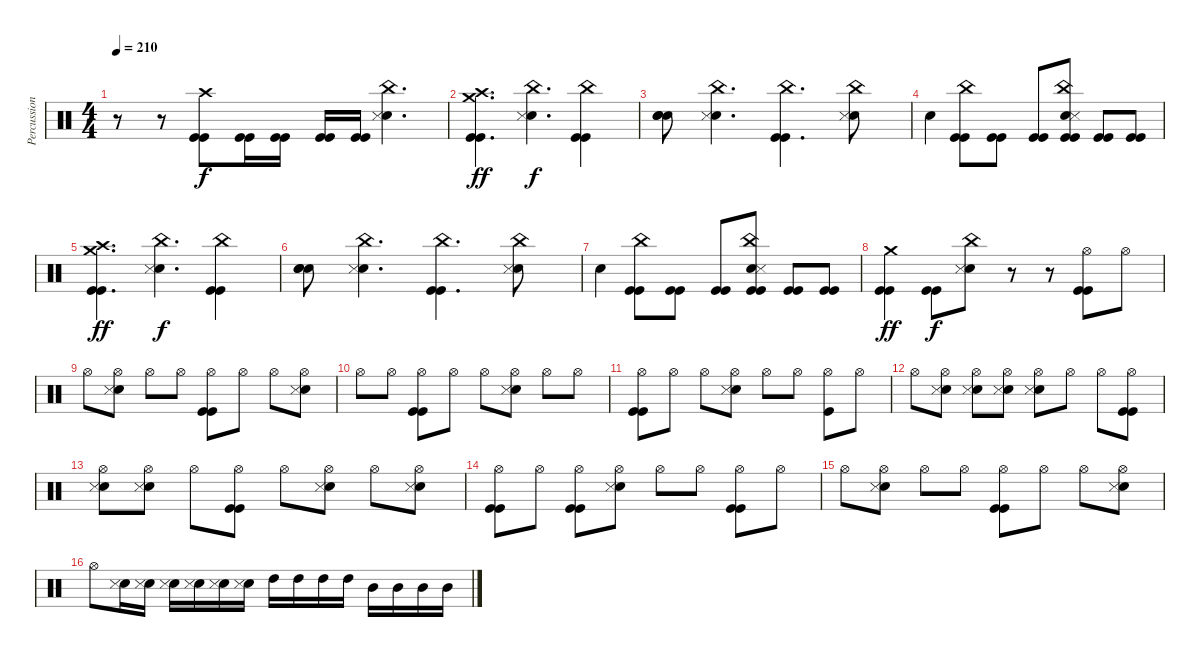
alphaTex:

\track ("Percussion" "Percussion") {instrument percussion}
\staff {score}
\articulation defaults
\ts (4 4)
\tempo 210
\clef neutral
\ks c
r.8{dy f} r.8 ("Crash high (hit)" "Kick (hit)" "Kick (hit)").8 ("Kick (hit)" "Kick (hit)").16 ("Kick (hit)" "Kick (hit)").16 ("Kick (hit)" "Kick (hit)").16 ("Kick (hit)" "Kick (hit)").16 ("China (hit)" "Snare (hit) 2" "Snare (side stick) 3").4{d} |
("Crash medium (hit)" "Crash high (hit)" "Kick (hit)" "Kick (hit)").4{d dy ff} ("China (hit)" "Snare (hit) 2" "Snare (side stick) 3").4{d dy f} ("China (hit)" "Kick (hit)" "Kick (hit)").4 |
("Snare (hit)" "Snare (hit)" "Snare (hit)").8 ("China (hit)" "Snare (hit) 2" "Snare (side stick) 3").4{d} ("China (hit)" "Kick (hit)" "Kick (hit)").4{d} ("China (hit)" "Snare (hit) 2" "Snare (side stick) 3").8 |
"Snare (hit)".4 ("China (hit)" "Kick (hit)" "Kick (hit)").8 ("Kick (hit)" "Kick (hit)").8 ("Kick (hit)" "Kick (hit)").8 ("China (hit)" "Snare (hit) 2" "Snare (side stick) 3" "Kick (hit)" "Kick (hit)").8 ("Kick (hit)" "Kick (hit)").8 ("Kick (hit)" "Kick (hit)").8 |
("Crash medium (hit)" "Crash high (hit)" "Kick (hit)" "Kick (hit)").4{d dy ff} ("China (hit)" "Snare (hit) 2" "Snare (side stick) 3").4{d dy f} ("China (hit)" "Kick (hit)" "Kick (hit)").4 |
("Snare (hit)" "Snare (hit)" "Snare (hit)").8 ("China (hit)" "Snare (hit) 2" "Snare (side stick) 3").4{d} ("China (hit)" "Kick (hit)" "Kick (hit)").4{d} ("China (hit)" "Snare (hit) 2" "Snare (side stick) 3").8 |
"Snare (hit)".4 ("China (hit)" "Kick (hit)" "Kick (hit)").8 ("Kick (hit)" "Kick (hit)").8 ("Kick (hit)" "Kick (hit)").8 ("China (hit)" "Snare (hit) 2" "Snare (side stick) 3" "Kick (hit)" "Kick (hit)").8 ("Kick (hit)" "Kick (hit)").8 ("Kick (hit)" "Kick (hit)").8 |
("Crash medium (hit)" "Kick (hit)" "Kick (hit)").4{dy ff} ("Kick (hit)" "Kick (hit)").8{dy f} ("China (hit)" "Snare (hit) 2" "Snare (side stick) 3").8 r.8 r.8 ("Hi-Hat (open)" "Kick (hit)" "Kick (hit)").8 "Hi-Hat (open)".8 |
"Hi-Hat (open)".8 ("Hi-Hat (open)" "Snare (hit) 2" "Snare (side stick) 3").8 "Hi-Hat (open)".8 "Hi-Hat (open)".8 ("Hi-Hat (open)" "Kick (hit)" "Kick (hit)").8 "Hi-Hat (open)".8 "Hi-Hat (open)".8 ("Hi-Hat (open)" "Snare (hit) 2" "Snare (side stick) 3").8 |
"Hi-Hat (open)".8 "Hi-Hat (open)".8 ("Hi-Hat (open)" "Kick (hit)" "Kick (hit)").8 "Hi-Hat (open)".8 "Hi-Hat (open)".8 ("Hi-Hat (open)" "Snare (hit) 2" "Snare (side stick) 3").8 "Hi-Hat (open)".8 "Hi-Hat (open)".8 |
("Hi-Hat (open)" "Kick (hit)" "Kick (hit)").8 "Hi-Hat (open)".8 "Hi-Hat (open)".8 ("Hi-Hat (open)" "Snare (hit) 2" "Snare (side stick) 3").8 "Hi-Hat (open)".8 "Hi-Hat (open)".8 ("Hi-Hat (open)" "Kick (hit)").8 "Hi-Hat (open)".8 |
"Hi-Hat (open)".8 ("Hi-Hat (open)" "Snare (hit) 2" "Snare (side stick) 3").8 ("Hi-Hat (open)" "Snare (hit) 2" "Snare (side stick) 3").8 ("Hi-Hat (open)" "Snare (hit) 2" "Snare (side stick) 3").8 ("Hi-Hat (open)" "Snare (hit) 2" "Snare (side stick) 3").8 "Hi-Hat (open)".8 "Hi-Hat (open)".8 ("Hi-Hat (open)" "Kick (hit)" "Kick (hit)").8 |
("Hi-Hat (open)" "Snare (hit) 2" "Snare (side stick) 3").8 ("Hi-Hat (open)" "Snare (hit) 2" "Snare (side stick) 3").8 "Hi-Hat (open)".8 ("Hi-Hat (open)" "Kick (hit)" "Kick (hit)").8 "Hi-Hat (open)".8 ("Hi-Hat (open)" "Snare (hit) 2" "Snare (side stick) 3").8 "Hi-Hat (open)".8 ("Hi-Hat (open)" "Snare (hit) 2" "Snare (side stick) 3").8 |
("Hi-Hat (open)" "Kick (hit)" "Kick (hit)").8 "Hi-Hat (open)".8 ("Hi-Hat (open)" "Kick (hit)" "Kick (hit)").8 ("Hi-Hat (open)" "Snare (hit) 2" "Snare (side stick) 3").8 "Hi-Hat (open)".8 "Hi-Hat (open)".8 ("Hi-Hat (open)" "Kick (hit)" "Kick (hit)").8 "Hi-Hat (open)".8 |
"Hi-Hat (open)".8 ("Hi-Hat (open)" "Snare (hit) 2" "Snare (side stick) 3").8 "Hi-Hat (open)".8 "Hi-Hat (open)".8 ("Hi-Hat (open)" "Kick (hit)" "Kick (hit)").8 "Hi-Hat (open)".8 "Hi-Hat (open)".8 ("Hi-Hat (open)" "Snare (hit) 2" "Snare (side stick) 3").8 |
"Hi-Hat (open)".8 ("Snare (hit) 2" "Snare (side stick) 3").16 ("Snare (hit) 2" "Snare (side stick) 3").16 ("Snare (hit) 2" "Snare (side stick) 3").16 ("Snare (hit) 2" "Snare (side stick) 3").16 ("Snare (hit) 2" "Snare (side stick) 3").16 ("Snare (hit) 2" "Snare (side stick) 3").16 "High Tom (hit)".16 "High Tom (hit)".16 "High Tom (hit)".16 "High Tom (hit)".16 "Mid Tom (hit)".16 "Mid Tom (hit)".16 "Mid Tom (hit)".16 "Mid Tom (hit)".16
